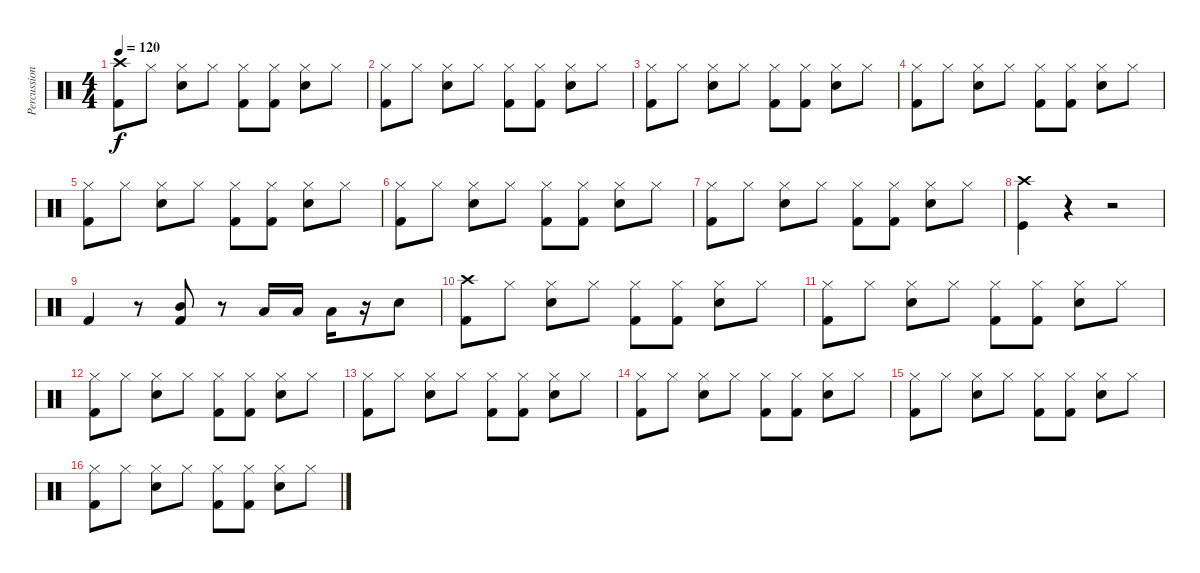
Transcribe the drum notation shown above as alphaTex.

\track ("Percussion" "Percussion") {instrument percussion}
\staff {score}
\articulation defaults
\ts (4 4)
\tempo 120
\clef neutral
\ks c
("Crash high (hit)" "Kick (hit) 2").8{dy f} "Hi-Hat (closed)".8 ("Hi-Hat (closed)" "Electric Snare (hit)").8 "Hi-Hat (closed)".8 ("Hi-Hat (closed)" "Kick (hit) 2").8 ("Hi-Hat (closed)" "Kick (hit) 2").8 ("Hi-Hat (closed)" "Electric Snare (hit)").8 "Hi-Hat (closed)".8 |
("Hi-Hat (closed)" "Kick (hit) 2").8 "Hi-Hat (closed)".8 ("Hi-Hat (closed)" "Electric Snare (hit)").8 "Hi-Hat (closed)".8 ("Hi-Hat (closed)" "Kick (hit) 2").8 ("Hi-Hat (closed)" "Kick (hit) 2").8 ("Hi-Hat (closed)" "Electric Snare (hit)").8 "Hi-Hat (closed)".8 |
("Hi-Hat (closed)" "Kick (hit) 2").8 "Hi-Hat (closed)".8 ("Hi-Hat (closed)" "Electric Snare (hit)").8 "Hi-Hat (closed)".8 ("Hi-Hat (closed)" "Kick (hit) 2").8 ("Hi-Hat (closed)" "Kick (hit) 2").8 ("Hi-Hat (closed)" "Electric Snare (hit)").8 "Hi-Hat (closed)".8 |
("Hi-Hat (closed)" "Kick (hit) 2").8 "Hi-Hat (closed)".8 ("Hi-Hat (closed)" "Electric Snare (hit)").8 "Hi-Hat (closed)".8 ("Hi-Hat (closed)" "Kick (hit) 2").8 ("Hi-Hat (closed)" "Kick (hit) 2").8 ("Hi-Hat (closed)" "Electric Snare (hit)").8 "Hi-Hat (closed)".8 |
("Hi-Hat (closed)" "Kick (hit) 2").8 "Hi-Hat (closed)".8 ("Hi-Hat (closed)" "Electric Snare (hit)").8 "Hi-Hat (closed)".8 ("Hi-Hat (closed)" "Kick (hit) 2").8 ("Hi-Hat (closed)" "Kick (hit) 2").8 ("Hi-Hat (closed)" "Electric Snare (hit)").8 "Hi-Hat (closed)".8 |
("Hi-Hat (closed)" "Kick (hit) 2").8 "Hi-Hat (closed)".8 ("Hi-Hat (closed)" "Electric Snare (hit)").8 "Hi-Hat (closed)".8 ("Hi-Hat (closed)" "Kick (hit) 2").8 ("Hi-Hat (closed)" "Kick (hit) 2").8 ("Hi-Hat (closed)" "Electric Snare (hit)").8 "Hi-Hat (closed)".8 |
("Hi-Hat (closed)" "Kick (hit) 2").8 "Hi-Hat (closed)".8 ("Hi-Hat (closed)" "Electric Snare (hit)").8 "Hi-Hat (closed)".8 ("Hi-Hat (closed)" "Kick (hit) 2").8 ("Hi-Hat (closed)" "Kick (hit) 2").8 ("Hi-Hat (closed)" "Electric Snare (hit)").8 "Hi-Hat (closed)".8 |
("Crash high (hit)" "Kick (hit)").4 r.4 r.2 |
"Kick (hit) 2".4 r.8 ("Mid Tom (hit)" "Kick (hit) 2").8 r.8 "Low Tom (hit)".16 "Low Tom (hit)".16 "Low Tom (hit)".16 r.16 "Electric Snare (hit)".8 |
("Crash high (hit)" "Kick (hit) 2").8 "Hi-Hat (closed)".8 ("Hi-Hat (closed)" "Electric Snare (hit)").8 "Hi-Hat (closed)".8 ("Hi-Hat (closed)" "Kick (hit) 2").8 ("Hi-Hat (closed)" "Kick (hit) 2").8 ("Hi-Hat (closed)" "Electric Snare (hit)").8 "Hi-Hat (closed)".8 |
("Hi-Hat (closed)" "Kick (hit) 2").8 "Hi-Hat (closed)".8 ("Hi-Hat (closed)" "Electric Snare (hit)").8 "Hi-Hat (closed)".8 ("Hi-Hat (closed)" "Kick (hit) 2").8 ("Hi-Hat (closed)" "Kick (hit) 2").8 ("Hi-Hat (closed)" "Electric Snare (hit)").8 "Hi-Hat (closed)".8 |
("Hi-Hat (closed)" "Kick (hit) 2").8 "Hi-Hat (closed)".8 ("Hi-Hat (closed)" "Electric Snare (hit)").8 "Hi-Hat (closed)".8 ("Hi-Hat (closed)" "Kick (hit) 2").8 ("Hi-Hat (closed)" "Kick (hit) 2").8 ("Hi-Hat (closed)" "Electric Snare (hit)").8 "Hi-Hat (closed)".8 |
("Hi-Hat (closed)" "Kick (hit) 2").8 "Hi-Hat (closed)".8 ("Hi-Hat (closed)" "Electric Snare (hit)").8 "Hi-Hat (closed)".8 ("Hi-Hat (closed)" "Kick (hit) 2").8 ("Hi-Hat (closed)" "Kick (hit) 2").8 ("Hi-Hat (closed)" "Electric Snare (hit)").8 "Hi-Hat (closed)".8 |
("Hi-Hat (closed)" "Kick (hit) 2").8 "Hi-Hat (closed)".8 ("Hi-Hat (closed)" "Electric Snare (hit)").8 "Hi-Hat (closed)".8 ("Hi-Hat (closed)" "Kick (hit) 2").8 ("Hi-Hat (closed)" "Kick (hit) 2").8 ("Hi-Hat (closed)" "Electric Snare (hit)").8 "Hi-Hat (closed)".8 |
("Hi-Hat (closed)" "Kick (hit) 2").8 "Hi-Hat (closed)".8 ("Hi-Hat (closed)" "Electric Snare (hit)").8 "Hi-Hat (closed)".8 ("Hi-Hat (closed)" "Kick (hit) 2").8 ("Hi-Hat (closed)" "Kick (hit) 2").8 ("Hi-Hat (closed)" "Electric Snare (hit)").8 "Hi-Hat (closed)".8 |
("Hi-Hat (closed)" "Kick (hit) 2").8 "Hi-Hat (closed)".8 ("Hi-Hat (closed)" "Electric Snare (hit)").8 "Hi-Hat (closed)".8 ("Hi-Hat (closed)" "Kick (hit) 2").8 ("Hi-Hat (closed)" "Kick (hit) 2").8 ("Hi-Hat (closed)" "Electric Snare (hit)").8 "Hi-Hat (closed)".8
